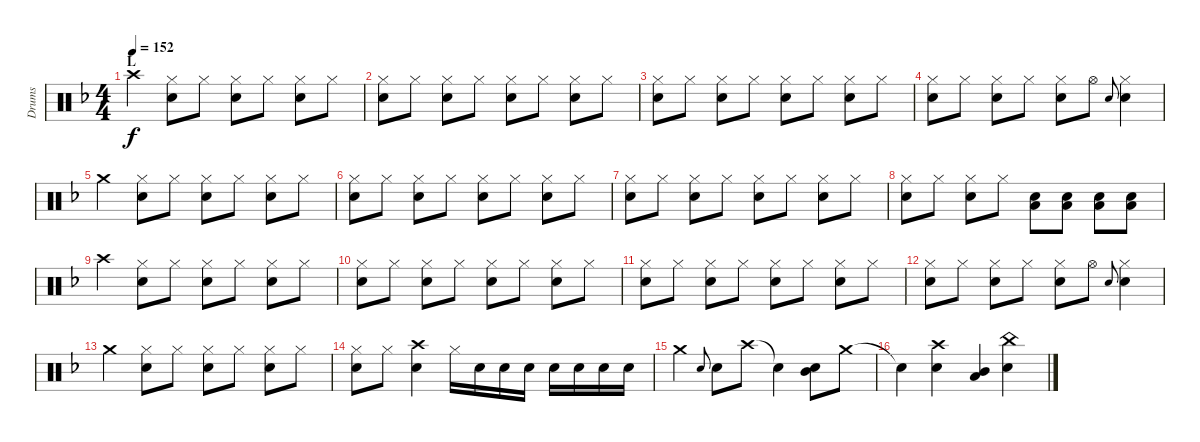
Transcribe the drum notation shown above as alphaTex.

\track ("Drums" "Drums") {instrument percussion}
\staff {score}
\articulation defaults
\ts (4 4)
\section ("" "L")
\tempo 152
\clef neutral
\ks f "Crash high (hit)".4{dy f}
("Hi-Hat (closed)" "Snare (hit) 2").8 "Hi-Hat (closed)".8 ("Hi-Hat (closed)" "Snare (hit) 2").8 "Hi-Hat (closed)".8 ("Hi-Hat (closed)" "Snare (hit) 2").8 "Hi-Hat (closed)".8 |
("Hi-Hat (closed)" "Snare (hit) 2").8 "Hi-Hat (closed)".8 ("Hi-Hat (closed)" "Snare (hit) 2").8 "Hi-Hat (closed)".8 ("Hi-Hat (closed)" "Snare (hit) 2").8 "Hi-Hat (closed)".8 ("Hi-Hat (closed)" "Snare (hit) 2").8 "Hi-Hat (closed)".8 |
("Hi-Hat (closed)" "Snare (hit) 2").8 "Hi-Hat (closed)".8 ("Hi-Hat (closed)" "Snare (hit) 2").8 "Hi-Hat (closed)".8 ("Hi-Hat (closed)" "Snare (hit) 2").8 "Hi-Hat (closed)".8 ("Hi-Hat (closed)" "Snare (hit) 2").8 "Hi-Hat (closed)".8 |
("Hi-Hat (closed)" "Snare (hit) 2").8 "Hi-Hat (closed)".8 ("Hi-Hat (closed)" "Snare (hit) 2").8 "Hi-Hat (closed)".8 ("Hi-Hat (closed)" "Snare (hit) 2").8 "Hi-Hat (open)".8 "Snare (hit) 2".8{gr onbeat} ("Hi-Hat (closed)" "Snare (hit) 2").4 |
"Crash medium (hit)".4 ("Hi-Hat (closed)" "Snare (hit) 2").8 "Hi-Hat (closed)".8 ("Hi-Hat (closed)" "Snare (hit) 2").8 "Hi-Hat (closed)".8 ("Hi-Hat (closed)" "Snare (hit) 2").8 "Hi-Hat (closed)".8 |
("Hi-Hat (closed)" "Snare (hit) 2").8 "Hi-Hat (closed)".8 ("Hi-Hat (closed)" "Snare (hit) 2").8 "Hi-Hat (closed)".8 ("Hi-Hat (closed)" "Snare (hit) 2").8 "Hi-Hat (closed)".8 ("Hi-Hat (closed)" "Snare (hit) 2").8 "Hi-Hat (closed)".8 |
("Hi-Hat (closed)" "Snare (hit) 2").8 "Hi-Hat (closed)".8 ("Hi-Hat (closed)" "Snare (hit) 2").8 "Hi-Hat (closed)".8 ("Hi-Hat (closed)" "Snare (hit) 2").8 "Hi-Hat (closed)".8 ("Hi-Hat (closed)" "Snare (hit) 2").8 "Hi-Hat (closed)".8 |
("Hi-Hat (closed)" "Snare (hit) 2").8 "Hi-Hat (closed)".8 ("Hi-Hat (closed)" "Snare (hit) 2").8 "Hi-Hat (closed)".8 ("Snare (hit) 2" "Low Tom (hit)").8 ("Snare (hit) 2" "Low Tom (hit)").8 ("Snare (hit) 2" "Low Tom (hit)").8 ("Snare (hit) 2" "Low Tom (hit)").8 |
"Crash high (hit)".4 ("Hi-Hat (closed)" "Snare (hit) 2").8 "Hi-Hat (closed)".8 ("Hi-Hat (closed)" "Snare (hit) 2").8 "Hi-Hat (closed)".8 ("Hi-Hat (closed)" "Snare (hit) 2").8 "Hi-Hat (closed)".8 |
("Hi-Hat (closed)" "Snare (hit) 2").8 "Hi-Hat (closed)".8 ("Hi-Hat (closed)" "Snare (hit) 2").8 "Hi-Hat (closed)".8 ("Hi-Hat (closed)" "Snare (hit) 2").8 "Hi-Hat (closed)".8 ("Hi-Hat (closed)" "Snare (hit) 2").8 "Hi-Hat (closed)".8 |
("Hi-Hat (closed)" "Snare (hit) 2").8 "Hi-Hat (closed)".8 ("Hi-Hat (closed)" "Snare (hit) 2").8 "Hi-Hat (closed)".8 ("Hi-Hat (closed)" "Snare (hit) 2").8 "Hi-Hat (closed)".8 ("Hi-Hat (closed)" "Snare (hit) 2").8 "Hi-Hat (closed)".8 |
("Hi-Hat (closed)" "Snare (hit) 2").8 "Hi-Hat (closed)".8 ("Hi-Hat (closed)" "Snare (hit) 2").8 "Hi-Hat (closed)".8 ("Hi-Hat (closed)" "Snare (hit) 2").8 "Hi-Hat (open)".8 "Snare (hit) 2".8{gr onbeat} ("Hi-Hat (closed)" "Snare (hit) 2").4 |
"Crash medium (hit)".4 ("Hi-Hat (closed)" "Snare (hit) 2").8 "Hi-Hat (closed)".8 ("Hi-Hat (closed)" "Snare (hit) 2").8 "Hi-Hat (closed)".8 ("Hi-Hat (closed)" "Snare (hit) 2").8 "Hi-Hat (closed)".8 |
("Snare (hit) 2" "Hi-Hat (closed)").8 "Hi-Hat (closed)".8 ("Crash high (hit)" "Snare (hit) 2").4 "Hi-Hat (closed)".16 "Snare (hit) 2".16 "Snare (hit) 2".16 "Snare (hit) 2".16 "Snare (hit) 2".16 "Snare (hit) 2".16 "Snare (hit) 2".16 "Snare (hit) 2".16 |
"Crash medium (hit)".4 "Snare (hit) 2".8{gr onbeat} "Snare (hit) 2".8 "Crash high (hit)".8 "Snare (hit)"{t}.4 ("Mid Tom (hit)" "Snare (hit) 2").8 "Crash medium (hit)".8 |
"Snare (hit)"{t}.4 ("Crash high (hit)" "Snare (hit) 2").4 ("Mid Tom (hit)" "Low Tom (hit)").4 ("China (hit)" "Snare (hit) 2").4
